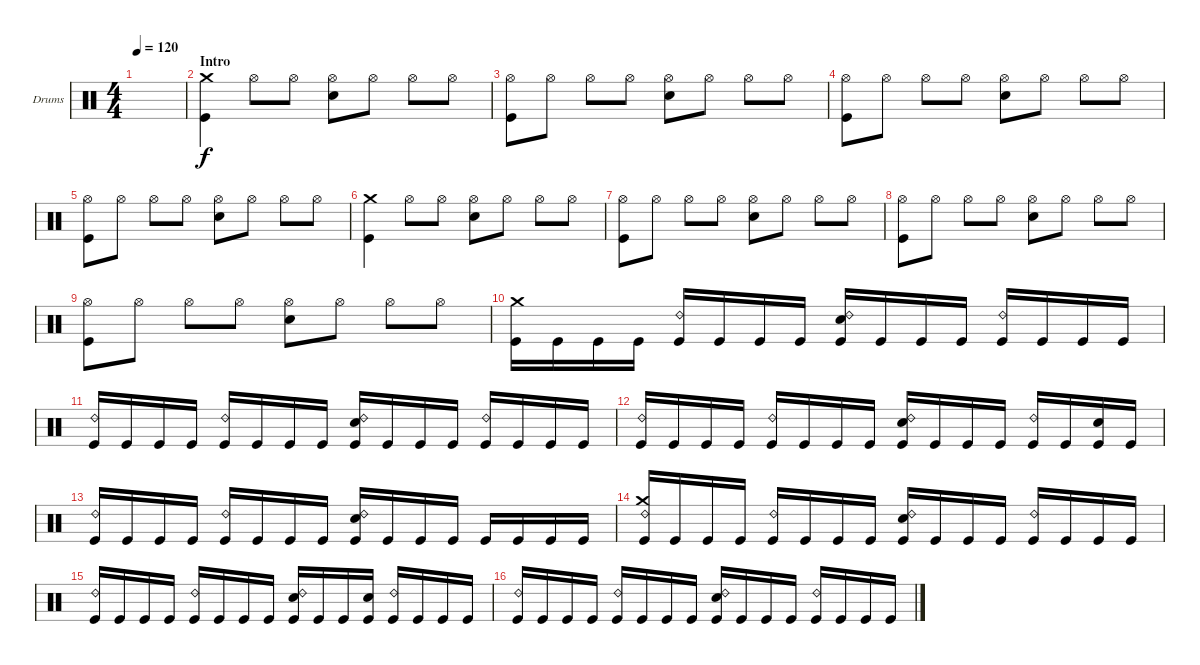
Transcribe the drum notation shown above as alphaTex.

\defaultSystemsLayout 4
\bracketExtendMode groupsimilarinstruments
\firstSystemTrackNameOrientation horizontal
\otherSystemsTrackNameOrientation horizontal
\track ("Drums" "Drums") {instrument percussion}
\staff {score}
\articulation defaults
\ts (4 4)
\tempo 120
\clef neutral
\ks c
|
\section ("" "Intro")
("Kick (hit)" "Crash medium (hit)").4 "Hi-Hat (open)".8 "Hi-Hat (open)".8 ("Snare (hit) 2" "Hi-Hat (open)").8 "Hi-Hat (open)".8 "Hi-Hat (open)".8 "Hi-Hat (open)".8 |
("Kick (hit)" "Hi-Hat (open)").8 "Hi-Hat (open)".8 "Hi-Hat (open)".8 "Hi-Hat (open)".8 ("Snare (hit) 2" "Hi-Hat (open)").8 "Hi-Hat (open)".8 "Hi-Hat (open)".8 "Hi-Hat (open)".8 |
("Kick (hit)" "Hi-Hat (open)").8 "Hi-Hat (open)".8 "Hi-Hat (open)".8 "Hi-Hat (open)".8 ("Snare (hit) 2" "Hi-Hat (open)").8 "Hi-Hat (open)".8 "Hi-Hat (open)".8 "Hi-Hat (open)".8 |
("Kick (hit)" "Hi-Hat (open)").8 "Hi-Hat (open)".8 "Hi-Hat (open)".8 "Hi-Hat (open)".8 ("Snare (hit) 2" "Hi-Hat (open)").8 "Hi-Hat (open)".8 "Hi-Hat (open)".8 "Hi-Hat (open)".8 |
("Kick (hit)" "Crash medium (hit)").4 "Hi-Hat (open)".8 "Hi-Hat (open)".8 ("Snare (hit) 2" "Hi-Hat (open)").8 "Hi-Hat (open)".8 "Hi-Hat (open)".8 "Hi-Hat (open)".8 |
("Kick (hit)" "Hi-Hat (open)").8 "Hi-Hat (open)".8 "Hi-Hat (open)".8 "Hi-Hat (open)".8 ("Snare (hit) 2" "Hi-Hat (open)").8 "Hi-Hat (open)".8 "Hi-Hat (open)".8 "Hi-Hat (open)".8 |
("Kick (hit)" "Hi-Hat (open)").8 "Hi-Hat (open)".8 "Hi-Hat (open)".8 "Hi-Hat (open)".8 ("Snare (hit) 2" "Hi-Hat (open)").8 "Hi-Hat (open)".8 "Hi-Hat (open)".8 "Hi-Hat (open)".8 |
("Kick (hit)" "Hi-Hat (open)").8 "Hi-Hat (open)".8 "Hi-Hat (open)".8 "Hi-Hat (open)".8 ("Snare (hit) 2" "Hi-Hat (open)").8 "Hi-Hat (open)".8 "Hi-Hat (open)".8 "Hi-Hat (open)".8 |
("Kick (hit)" "Crash medium (hit)").16 "Kick (hit)".16 "Kick (hit)".16 "Kick (hit)".16 ("Kick (hit)" "Ride (bell) 2").16 "Kick (hit)".16 "Kick (hit)".16 "Kick (hit)".16 ("Ride (bell) 2" "Snare (hit) 2" "Kick (hit)").16 "Kick (hit)".16 "Kick (hit)".16 "Kick (hit)".16 ("Ride (bell) 2" "Kick (hit)").16 "Kick (hit)".16 "Kick (hit)".16 "Kick (hit)".16 |
("Kick (hit)" "Ride (bell) 2").16 "Kick (hit)".16 "Kick (hit)".16 "Kick (hit)".16 ("Kick (hit)" "Ride (bell) 2").16 "Kick (hit)".16 "Kick (hit)".16 "Kick (hit)".16 ("Ride (bell) 2" "Snare (hit) 2" "Kick (hit)").16 "Kick (hit)".16 "Kick (hit)".16 "Kick (hit)".16 ("Ride (bell) 2" "Kick (hit)").16 "Kick (hit)".16 "Kick (hit)".16 "Kick (hit)".16 |
("Kick (hit)" "Ride (bell) 2").16 "Kick (hit)".16 "Kick (hit)".16 "Kick (hit)".16 ("Kick (hit)" "Ride (bell) 2").16 "Kick (hit)".16 "Kick (hit)".16 "Kick (hit)".16 ("Ride (bell) 2" "Snare (hit) 2" "Kick (hit)").16 "Kick (hit)".16 "Kick (hit)".16 "Kick (hit)".16 ("Kick (hit)" "Ride (bell) 2").16 "Kick (hit)".16 ("Kick (hit)" "Snare (hit) 2").16 "Kick (hit)".16 |
("Kick (hit)" "Ride (bell) 2").16 "Kick (hit)".16 "Kick (hit)".16 "Kick (hit)".16 ("Kick (hit)" "Ride (bell) 2").16 "Kick (hit)".16 "Kick (hit)".16 "Kick (hit)".16 ("Ride (bell) 2" "Snare (hit) 2" "Kick (hit)").16 "Kick (hit)".16 "Kick (hit)".16 "Kick (hit)".16 "Kick (hit)".16 "Kick (hit)".16 "Kick (hit)".16 "Kick (hit)".16 |
("Kick (hit)" "Ride (bell) 2" "Crash medium (hit)").16 "Kick (hit)".16 "Kick (hit)".16 "Kick (hit)".16 ("Kick (hit)" "Ride (bell) 2").16 "Kick (hit)".16 "Kick (hit)".16 "Kick (hit)".16 ("Ride (bell) 2" "Snare (hit) 2" "Kick (hit)").16 "Kick (hit)".16 "Kick (hit)".16 "Kick (hit)".16 ("Ride (bell) 2" "Kick (hit)").16 "Kick (hit)".16 "Kick (hit)".16 "Kick (hit)".16 |
("Kick (hit)" "Ride (bell) 2").16 "Kick (hit)".16 "Kick (hit)".16 "Kick (hit)".16 ("Kick (hit)" "Ride (bell) 2").16 "Kick (hit)".16 "Kick (hit)".16 "Kick (hit)".16 ("Ride (bell) 2" "Snare (hit) 2" "Kick (hit)").16 "Kick (hit)".16 "Kick (hit)".16 ("Kick (hit)" "Snare (hit) 2").16 ("Ride (bell) 2" "Kick (hit)").16 "Kick (hit)".16 "Kick (hit)".16 "Kick (hit)".16 |
("Kick (hit)" "Ride (bell) 2").16 "Kick (hit)".16 "Kick (hit)".16 "Kick (hit)".16 ("Kick (hit)" "Ride (bell) 2").16 "Kick (hit)".16 "Kick (hit)".16 "Kick (hit)".16 ("Ride (bell) 2" "Snare (hit) 2" "Kick (hit)").16 "Kick (hit)".16 "Kick (hit)".16 "Kick (hit)".16 ("Ride (bell) 2" "Kick (hit)").16 "Kick (hit)".16 "Kick (hit)".16 "Kick (hit)".16
